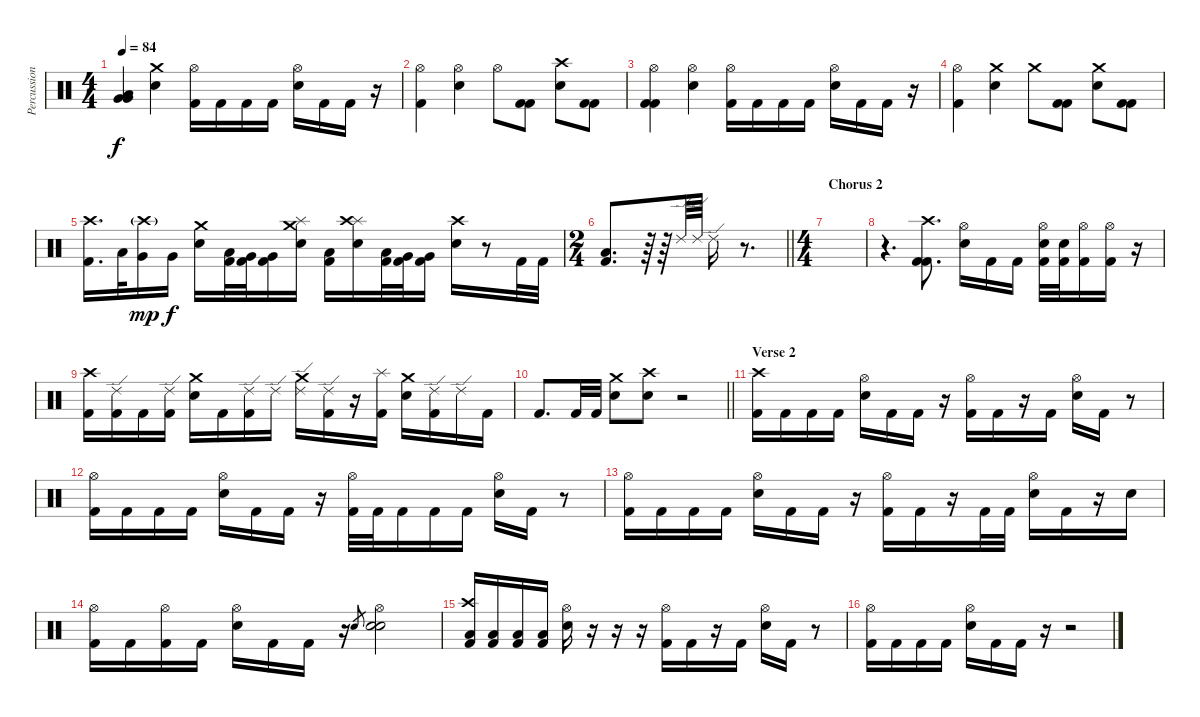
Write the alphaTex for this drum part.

\track ("Percussion" "Percussion") {instrument percussion}
\staff {score}
\articulation defaults
\ts (4 4)
\tempo 84
\clef neutral
\ks c
("Low Tom (hit)" "Very Low Tom (hit)" "Very Low Tom (hit)").4{dy f} ("Crash medium (hit)" "Electric Snare (hit)").4 ("Hi-Hat (open)" "Kick (hit) 2").16 "Kick (hit) 2".16 "Kick (hit) 2".16 "Kick (hit) 2".16 ("Hi-Hat (open)" "Electric Snare (hit)").16 "Kick (hit) 2".16 "Kick (hit) 2".16 r.16 |
("Hi-Hat (open)" "Kick (hit) 2").4 ("Hi-Hat (open)" "Electric Snare (hit)").4 "Hi-Hat (open)".8 ("Kick (hit) 2" "Kick (hit) 2").8 ("Crash high (hit)" "Electric Snare (hit)").8 ("Kick (hit) 2" "Kick (hit) 2").8 |
("Hi-Hat (open)" "Kick (hit) 2" "Kick (hit) 2").4 ("Hi-Hat (open)" "Electric Snare (hit)").4 ("Hi-Hat (open)" "Kick (hit) 2").16 "Kick (hit) 2".16 "Kick (hit) 2".16 "Kick (hit) 2".16 ("Hi-Hat (open)" "Electric Snare (hit)").16 "Kick (hit) 2".16 "Kick (hit) 2".16 r.16 |
("Hi-Hat (open)" "Kick (hit) 2").4 ("Crash medium (hit)" "Electric Snare (hit)").4 "Crash medium (hit)".8 ("Kick (hit) 2" "Kick (hit) 2").8 ("Crash medium (hit)" "Electric Snare (hit)").8 ("Kick (hit) 2" "Kick (hit) 2").8 |
("Crash high (hit)" "Kick (hit) 2").16{d} "Low Tom (hit)".32 ("Crash high (hit)"{g} "Very Low Tom (hit)").16{dy mp} "Very Low Tom (hit)".16{dy f} ("Crash medium (hit)" "Electric Snare (hit)").16 ("Low Tom (hit)" "Kick (hit) 2").32 ("Very Low Tom (hit)" "Kick (hit) 2").32 ("Very Low Tom (hit)" "Kick (hit) 2").16 ("Splash (hit)" "Crash medium (hit)" "Electric Snare (hit)").16 ("Low Tom (hit)" "Kick (hit) 2").16 ("Splash (hit)" "Crash high (hit)" "Electric Snare (hit)").16 ("Low Tom (hit)" "Kick (hit) 2").32 ("Very Low Tom (hit)" "Kick (hit) 2").32 ("Very Low Tom (hit)" "Kick (hit) 2").16 ("Crash high (hit)" "Electric Snare (hit)").16 r.8 "Kick (hit) 2".32 "Kick (hit) 2".32 |
\ts (2 4)
\barLineRight lightlight
("Low Floor Tom (hit)" "Kick (hit) 2").8{d} r.64 r.64 "Ride (edge) 2".64 "Ride (edge) 2".64 "Ride (edge) 2".16 r.8{d} |
\ts (4 4)
\section ("" "Chorus 2")
|
r.4{d} ("Crash high (hit)" "Kick (hit) 2" "Kick (hit) 2").8{d} ("Hi-Hat (open)" "Electric Snare (hit)").16 "Kick (hit) 2".16 "Kick (hit) 2".16 ("Hi-Hat (open)" "Electric Snare (hit)" "Kick (hit) 2").32 ("Electric Snare (hit)" "Kick (hit) 2").32 ("Hi-Hat (open)" "Kick (hit) 2").16 ("Hi-Hat (open)" "Kick (hit) 2").16 r.16 |
("Crash high (hit)" "Kick (hit) 2").16 ("Ride (edge) 2" "Kick (hit) 2").16 "Kick (hit) 2".16 ("Ride (edge) 2" "Kick (hit) 2").16 ("Crash medium (hit)" "Electric Snare (hit)").16 "Kick (hit) 2".16 ("Ride (edge) 2" "Kick (hit) 2").16 "Ride (edge) 2".16 ("Ride (edge) 2" "Crash medium (hit)").16 ("Ride (edge) 2" "Kick (hit) 2").16 r.16 ("Splash (hit)" "Kick (hit) 2").16 ("Crash medium (hit)" "Electric Snare (hit)").16 ("Ride (edge) 2" "Kick (hit) 2").16 "Ride (edge) 2".16 "Kick (hit) 2".16 |
\barLineRight lightlight "Kick (hit) 2".8{d} "Kick (hit) 2".32 "Kick (hit) 2".32
("Crash medium (hit)" "Electric Snare (hit)").8 ("Crash high (hit)" "Electric Snare (hit)").8 r.2 |
\section ("" "Verse 2")
("Crash high (hit)" "Kick (hit) 2").16 "Kick (hit) 2".16 "Kick (hit) 2".16 "Kick (hit) 2".16 ("Hi-Hat (open)" "Electric Snare (hit)").16 "Kick (hit) 2".16 "Kick (hit) 2".16 r.16 ("Hi-Hat (open)" "Kick (hit) 2").16 "Kick (hit) 2".16 r.16 "Kick (hit) 2".16 ("Hi-Hat (open)" "Electric Snare (hit)").16 "Kick (hit) 2".16 r.8 |
("Hi-Hat (open)" "Kick (hit) 2").16 "Kick (hit) 2".16 "Kick (hit) 2".16 "Kick (hit) 2".16 ("Hi-Hat (open)" "Electric Snare (hit)").16 "Kick (hit) 2".16 "Kick (hit) 2".16 r.16 ("Hi-Hat (open)" "Kick (hit) 2").32 "Kick (hit) 2".32 "Kick (hit) 2".16 "Kick (hit) 2".16 "Kick (hit) 2".16 ("Hi-Hat (open)" "Electric Snare (hit)").16 "Kick (hit) 2".16 r.8 |
("Hi-Hat (open)" "Kick (hit) 2").16 "Kick (hit) 2".16 "Kick (hit) 2".16 "Kick (hit) 2".16 ("Hi-Hat (open)" "Electric Snare (hit)").16 "Kick (hit) 2".16 "Kick (hit) 2".16 r.16 ("Hi-Hat (open)" "Kick (hit) 2").16 "Kick (hit) 2".16 r.16 "Kick (hit) 2".32 "Kick (hit) 2".32 ("Hi-Hat (open)" "Electric Snare (hit)").16 "Kick (hit) 2".16 r.16 "Electric Snare (hit)".16 |
("Hi-Hat (open)" "Kick (hit) 2").16 "Kick (hit) 2".16 ("Hi-Hat (open)" "Kick (hit) 2").16 "Kick (hit) 2".16 ("Hi-Hat (open)" "Electric Snare (hit)").16 "Kick (hit) 2".16 "Kick (hit) 2".16 r.16 "Electric Snare (hit)".8{gr} ("Hi-Hat (open)" "Electric Snare (hit)" "Electric Snare (hit)").2 |
("Crash high (hit)" "Low Floor Tom (hit)" "Kick (hit) 2").16 ("Low Floor Tom (hit)" "Kick (hit) 2").16 ("Low Floor Tom (hit)" "Kick (hit) 2").16 ("Low Floor Tom (hit)" "Kick (hit) 2").16 ("Hi-Hat (open)" "Electric Snare (hit)").16 r.16 r.16 r.16 ("Hi-Hat (open)" "Kick (hit) 2").16 "Kick (hit) 2".16 r.16 "Kick (hit) 2".16 ("Hi-Hat (open)" "Electric Snare (hit)").16 "Kick (hit) 2".16 r.8 |
("Hi-Hat (open)" "Kick (hit) 2").16 "Kick (hit) 2".16 "Kick (hit) 2".16 "Kick (hit) 2".16 ("Hi-Hat (open)" "Electric Snare (hit)").16 "Kick (hit) 2".16 "Kick (hit) 2".16 r.16 r.2
